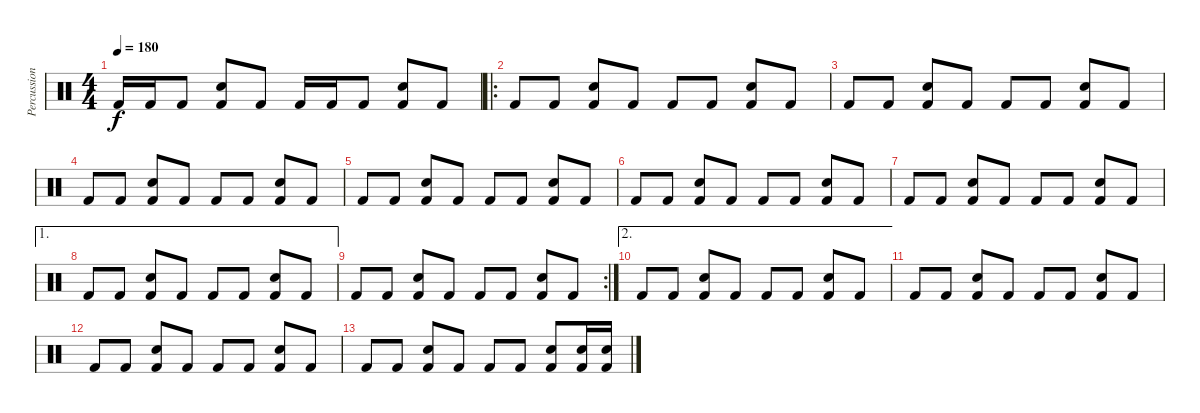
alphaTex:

\track ("Percussion" "Percussion") {instrument percussion}
\staff {score}
\articulation defaults
\ts (4 4)
\tempo 180
\clef neutral
\ks c "Kick (hit) 2".16{dy f} "Kick (hit) 2".16 "Kick (hit) 2".8
("Kick (hit) 2" "Snare (hit) 2").8 "Kick (hit) 2".8 "Kick (hit) 2".16 "Kick (hit) 2".16 "Kick (hit) 2".8 ("Kick (hit) 2" "Snare (hit) 2").8 "Kick (hit) 2".8 |
\ro "Kick (hit) 2".8 "Kick (hit) 2".8
("Kick (hit) 2" "Snare (hit) 2").8 "Kick (hit) 2".8 "Kick (hit) 2".8 "Kick (hit) 2".8 ("Kick (hit) 2" "Snare (hit) 2").8 "Kick (hit) 2".8 |
"Kick (hit) 2".8 "Kick (hit) 2".8 ("Kick (hit) 2" "Snare (hit) 2").8 "Kick (hit) 2".8 "Kick (hit) 2".8 "Kick (hit) 2".8 ("Kick (hit) 2" "Snare (hit) 2").8 "Kick (hit) 2".8 |
"Kick (hit) 2".8 "Kick (hit) 2".8 ("Kick (hit) 2" "Snare (hit) 2").8 "Kick (hit) 2".8 "Kick (hit) 2".8 "Kick (hit) 2".8 ("Kick (hit) 2" "Snare (hit) 2").8 "Kick (hit) 2".8 |
"Kick (hit) 2".8 "Kick (hit) 2".8 ("Kick (hit) 2" "Snare (hit) 2").8 "Kick (hit) 2".8 "Kick (hit) 2".8 "Kick (hit) 2".8 ("Kick (hit) 2" "Snare (hit) 2").8 "Kick (hit) 2".8 |
"Kick (hit) 2".8 "Kick (hit) 2".8 ("Kick (hit) 2" "Snare (hit) 2").8 "Kick (hit) 2".8 "Kick (hit) 2".8 "Kick (hit) 2".8 ("Kick (hit) 2" "Snare (hit) 2").8 "Kick (hit) 2".8 |
"Kick (hit) 2".8 "Kick (hit) 2".8 ("Kick (hit) 2" "Snare (hit) 2").8 "Kick (hit) 2".8 "Kick (hit) 2".8 "Kick (hit) 2".8 ("Kick (hit) 2" "Snare (hit) 2").8 "Kick (hit) 2".8 |
\ae 1 "Kick (hit) 2".8 "Kick (hit) 2".8
("Kick (hit) 2" "Snare (hit) 2").8 "Kick (hit) 2".8 "Kick (hit) 2".8 "Kick (hit) 2".8 ("Kick (hit) 2" "Snare (hit) 2").8 "Kick (hit) 2".8 |
\rc 2 "Kick (hit) 2".8 "Kick (hit) 2".8
("Kick (hit) 2" "Snare (hit) 2").8 "Kick (hit) 2".8 "Kick (hit) 2".8 "Kick (hit) 2".8 ("Kick (hit) 2" "Snare (hit) 2").8 "Kick (hit) 2".8 |
\ae 2 "Kick (hit) 2".8 "Kick (hit) 2".8
("Kick (hit) 2" "Snare (hit) 2").8 "Kick (hit) 2".8 "Kick (hit) 2".8 "Kick (hit) 2".8 ("Kick (hit) 2" "Snare (hit) 2").8 "Kick (hit) 2".8 |
"Kick (hit) 2".8 "Kick (hit) 2".8 ("Kick (hit) 2" "Snare (hit) 2").8 "Kick (hit) 2".8 "Kick (hit) 2".8 "Kick (hit) 2".8 ("Kick (hit) 2" "Snare (hit) 2").8 "Kick (hit) 2".8 |
"Kick (hit) 2".8 "Kick (hit) 2".8 ("Kick (hit) 2" "Snare (hit) 2").8 "Kick (hit) 2".8 "Kick (hit) 2".8 "Kick (hit) 2".8 ("Kick (hit) 2" "Snare (hit) 2").8 "Kick (hit) 2".8 |
"Kick (hit) 2".8 "Kick (hit) 2".8 ("Kick (hit) 2" "Snare (hit) 2").8 "Kick (hit) 2".8 "Kick (hit) 2".8 "Kick (hit) 2".8 ("Kick (hit) 2" "Snare (hit) 2").8 ("Kick (hit) 2" "Snare (hit) 2").16 ("Kick (hit) 2" "Snare (hit) 2").16
